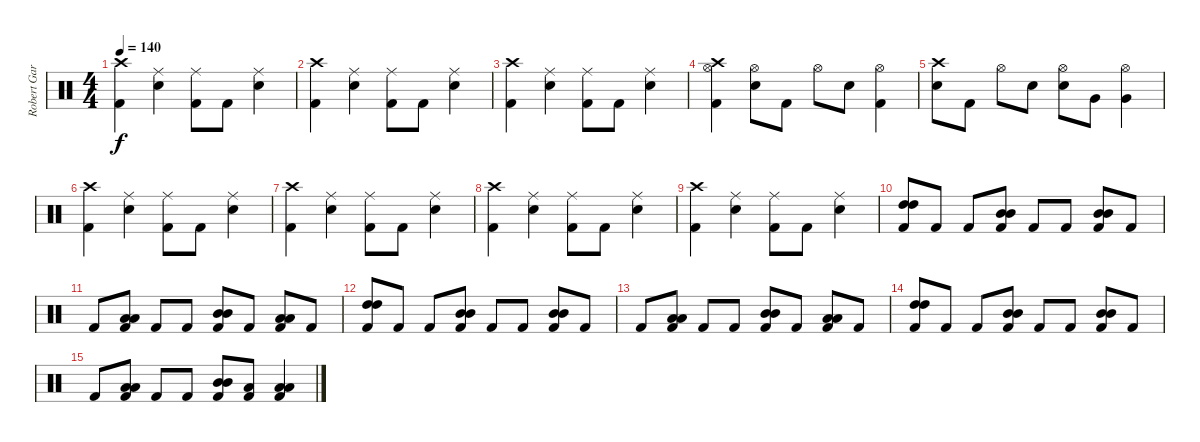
\track ("Robert Garven" "Robert Gar") {instrument percussion}
\staff {score}
\articulation defaults
\ts (4 4)
\tempo 140
\clef neutral
\ks c
("Crash high (hit)" "Kick (hit) 2").4{dy f} ("Ride (middle)" "Electric Snare (hit)").4 ("Ride (middle)" "Kick (hit) 2").8 "Kick (hit) 2".8 ("Ride (middle)" "Electric Snare (hit)").4 |
("Crash high (hit)" "Kick (hit) 2").4 ("Ride (middle)" "Electric Snare (hit)").4 ("Ride (middle)" "Kick (hit) 2").8 "Kick (hit) 2".8 ("Ride (middle)" "Electric Snare (hit)").4 |
("Crash high (hit)" "Kick (hit) 2").4 ("Ride (middle)" "Electric Snare (hit)").4 ("Ride (middle)" "Kick (hit) 2").8 "Kick (hit) 2".8 ("Ride (middle)" "Electric Snare (hit)").4 |
("Crash high (hit)" "Hi-Hat (open)" "Kick (hit) 2").4 ("Hi-Hat (open)" "Electric Snare (hit)").8 "Kick (hit) 2".8 "Hi-Hat (open)".8 "Electric Snare (hit)".8 ("Hi-Hat (open)" "Kick (hit) 2").4 |
("Crash high (hit)" "Electric Snare (hit)").8 "Kick (hit) 2".8 "Hi-Hat (open)".8 "Electric Snare (hit)".8 ("Hi-Hat (open)" "Electric Snare (hit)").8 "Very Low Tom (hit)".8 ("Hi-Hat (open)" "Very Low Tom (hit)").4 |
("Crash high (hit)" "Kick (hit) 2").4 ("Ride (middle)" "Electric Snare (hit)").4 ("Ride (middle)" "Kick (hit) 2").8 "Kick (hit) 2".8 ("Ride (middle)" "Electric Snare (hit)").4 |
("Crash high (hit)" "Kick (hit) 2").4 ("Ride (middle)" "Electric Snare (hit)").4 ("Ride (middle)" "Kick (hit) 2").8 "Kick (hit) 2".8 ("Ride (middle)" "Electric Snare (hit)").4 |
("Crash high (hit)" "Kick (hit) 2").4 ("Ride (middle)" "Electric Snare (hit)").4 ("Ride (middle)" "Kick (hit) 2").8 "Kick (hit) 2".8 ("Ride (middle)" "Electric Snare (hit)").4 |
("Crash high (hit)" "Kick (hit) 2").4 ("Ride (middle)" "Electric Snare (hit)").4 ("Ride (middle)" "Kick (hit) 2").8 "Kick (hit) 2".8 ("Ride (middle)" "Electric Snare (hit)").4 |
("High Tom (hit)" "High Tom (hit)" "Kick (hit) 2").8 "Kick (hit) 2".8 "Kick (hit) 2".8 ("Mid Tom (hit)" "Mid Tom (hit)" "Kick (hit) 2").8 "Kick (hit) 2".8 "Kick (hit) 2".8 ("Mid Tom (hit)" "Mid Tom (hit)" "Kick (hit) 2").8 "Kick (hit) 2".8 |
"Kick (hit) 2".8 ("Low Tom (hit)" "Low Tom (hit)" "Kick (hit) 2").8 "Kick (hit) 2".8 "Kick (hit) 2".8 ("Mid Tom (hit)" "Mid Tom (hit)" "Kick (hit) 2").8 "Kick (hit) 2".8 ("Low Tom (hit)" "Low Tom (hit)" "Kick (hit) 2").8 "Kick (hit) 2".8 |
("High Tom (hit)" "High Tom (hit)" "Kick (hit) 2").8 "Kick (hit) 2".8 "Kick (hit) 2".8 ("Mid Tom (hit)" "Mid Tom (hit)" "Kick (hit) 2").8 "Kick (hit) 2".8 "Kick (hit) 2".8 ("Mid Tom (hit)" "Mid Tom (hit)" "Kick (hit) 2").8 "Kick (hit) 2".8 |
"Kick (hit) 2".8 ("Low Tom (hit)" "Low Tom (hit)" "Kick (hit) 2").8 "Kick (hit) 2".8 "Kick (hit) 2".8 ("Mid Tom (hit)" "Mid Tom (hit)" "Kick (hit) 2").8 "Kick (hit) 2".8 ("Low Tom (hit)" "Low Tom (hit)" "Kick (hit) 2").8 "Kick (hit) 2".8 |
("High Tom (hit)" "High Tom (hit)" "Kick (hit) 2").8 "Kick (hit) 2".8 "Kick (hit) 2".8 ("Mid Tom (hit)" "Mid Tom (hit)" "Kick (hit) 2").8 "Kick (hit) 2".8 "Kick (hit) 2".8 ("Mid Tom (hit)" "Mid Tom (hit)" "Kick (hit) 2").8 "Kick (hit) 2".8 |
"Kick (hit) 2".8 ("Low Tom (hit)" "Low Tom (hit)" "Kick (hit) 2").8 "Kick (hit) 2".8 "Kick (hit) 2".8 ("Mid Tom (hit)" "Mid Tom (hit)" "Kick (hit) 2").8 ("Low Tom (hit)" "Kick (hit) 2").8 ("Low Tom (hit)" "Low Tom (hit)" "Kick (hit) 2").4
